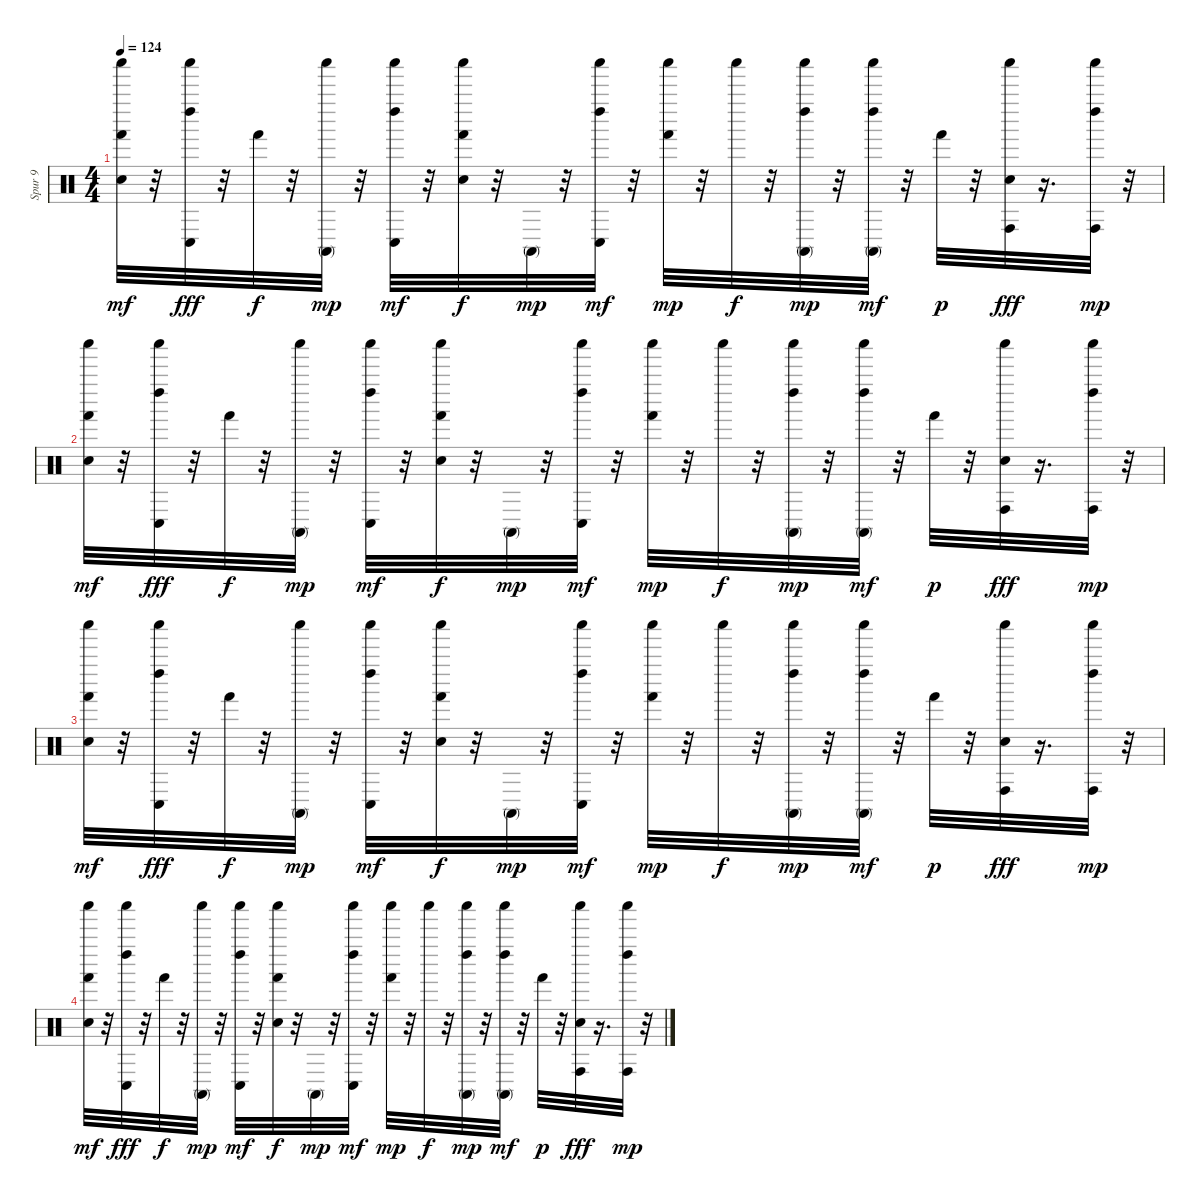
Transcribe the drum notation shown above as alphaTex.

\track ("Spur 9" "Spur 9") {instrument percussion}
\staff {score}
\articulation defaults
\ts (4 4)
\tempo 124
\clef neutral
\ks c
("Electric Snare (hit)" "Hand (hit)" "Shaker (hit)").32{dy mf} r.32 ("Conga low (hit)" "Left Maraca (hit)" "Shaker (hit)").32{dy fff} r.32 "Hand (hit)".32{dy f} r.32 ("Conga high (mute)" "Shaker (hit)").32{dy mp} r.32 ("Conga low (hit)" "Left Maraca (hit)" "Shaker (hit)").32{dy mf} r.32 ("Electric Snare (hit)" "Hand (hit)" "Shaker (hit)").32{dy f} r.32 "Conga high (mute)".32{dy mp} r.32 ("Conga low (hit)" "Left Maraca (hit)" "Shaker (hit)").32{dy mf} r.32 ("Hand (hit)" "Shaker (hit)").32{dy mp} r.32 "Shaker (hit)".32{dy f} r.32 ("Conga high (mute)" "Left Maraca (hit)" "Shaker (hit)").32{dy mp} r.32 ("Conga high (mute)" "Left Maraca (hit)" "Shaker (hit)").32{dy mf} r.32 "Hand (hit)".32{dy p} r.32 ("Electric Snare (hit)" "Conga high (hit)" "Shaker (hit)").32{dy fff} r.16{d} ("Conga high (hit)" "Left Maraca (hit)" "Shaker (hit)").32{dy mp} r.32 |
("Electric Snare (hit)" "Hand (hit)" "Shaker (hit)").32{dy mf} r.32 ("Conga low (hit)" "Left Maraca (hit)" "Shaker (hit)").32{dy fff} r.32 "Hand (hit)".32{dy f} r.32 ("Conga high (mute)" "Shaker (hit)").32{dy mp} r.32 ("Conga low (hit)" "Left Maraca (hit)" "Shaker (hit)").32{dy mf} r.32 ("Electric Snare (hit)" "Hand (hit)" "Shaker (hit)").32{dy f} r.32 "Conga high (mute)".32{dy mp} r.32 ("Conga low (hit)" "Left Maraca (hit)" "Shaker (hit)").32{dy mf} r.32 ("Hand (hit)" "Shaker (hit)").32{dy mp} r.32 "Shaker (hit)".32{dy f} r.32 ("Conga high (mute)" "Left Maraca (hit)" "Shaker (hit)").32{dy mp} r.32 ("Conga high (mute)" "Left Maraca (hit)" "Shaker (hit)").32{dy mf} r.32 "Hand (hit)".32{dy p} r.32 ("Electric Snare (hit)" "Conga high (hit)" "Shaker (hit)").32{dy fff} r.16{d} ("Conga high (hit)" "Left Maraca (hit)" "Shaker (hit)").32{dy mp} r.32 |
("Electric Snare (hit)" "Hand (hit)" "Shaker (hit)").32{dy mf} r.32 ("Conga low (hit)" "Left Maraca (hit)" "Shaker (hit)").32{dy fff} r.32 "Hand (hit)".32{dy f} r.32 ("Conga high (mute)" "Shaker (hit)").32{dy mp} r.32 ("Conga low (hit)" "Left Maraca (hit)" "Shaker (hit)").32{dy mf} r.32 ("Electric Snare (hit)" "Hand (hit)" "Shaker (hit)").32{dy f} r.32 "Conga high (mute)".32{dy mp} r.32 ("Conga low (hit)" "Left Maraca (hit)" "Shaker (hit)").32{dy mf} r.32 ("Hand (hit)" "Shaker (hit)").32{dy mp} r.32 "Shaker (hit)".32{dy f} r.32 ("Conga high (mute)" "Left Maraca (hit)" "Shaker (hit)").32{dy mp} r.32 ("Conga high (mute)" "Left Maraca (hit)" "Shaker (hit)").32{dy mf} r.32 "Hand (hit)".32{dy p} r.32 ("Electric Snare (hit)" "Conga high (hit)" "Shaker (hit)").32{dy fff} r.16{d} ("Conga high (hit)" "Left Maraca (hit)" "Shaker (hit)").32{dy mp} r.32 |
("Electric Snare (hit)" "Hand (hit)" "Shaker (hit)").32{dy mf} r.32 ("Conga low (hit)" "Left Maraca (hit)" "Shaker (hit)").32{dy fff} r.32 "Hand (hit)".32{dy f} r.32 ("Conga high (mute)" "Shaker (hit)").32{dy mp} r.32 ("Conga low (hit)" "Left Maraca (hit)" "Shaker (hit)").32{dy mf} r.32 ("Electric Snare (hit)" "Hand (hit)" "Shaker (hit)").32{dy f} r.32 "Conga high (mute)".32{dy mp} r.32 ("Conga low (hit)" "Left Maraca (hit)" "Shaker (hit)").32{dy mf} r.32 ("Hand (hit)" "Shaker (hit)").32{dy mp} r.32 "Shaker (hit)".32{dy f} r.32 ("Conga high (mute)" "Left Maraca (hit)" "Shaker (hit)").32{dy mp} r.32 ("Conga high (mute)" "Left Maraca (hit)" "Shaker (hit)").32{dy mf} r.32 "Hand (hit)".32{dy p} r.32 ("Electric Snare (hit)" "Conga high (hit)" "Shaker (hit)").32{dy fff} r.16{d} ("Conga high (hit)" "Left Maraca (hit)" "Shaker (hit)").32{dy mp} r.32
